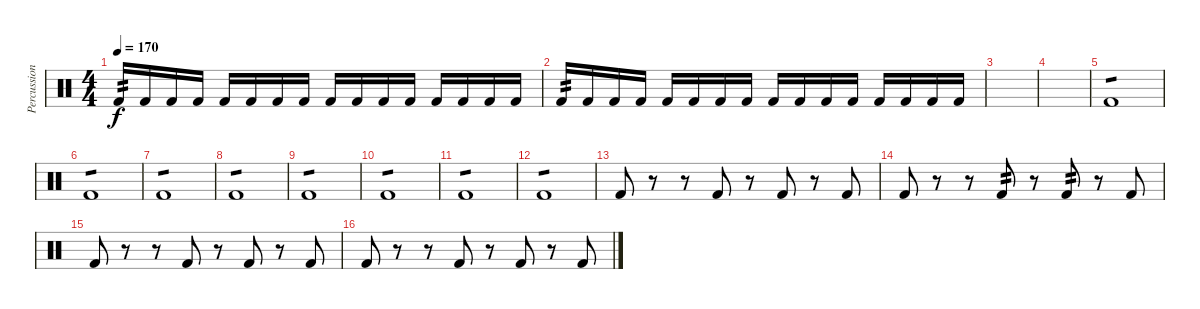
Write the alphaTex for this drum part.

\track ("Percussion" "Percussion") {solo instrument percussion}
\staff {score}
\articulation defaults
\ts (4 4)
\tempo 170
\clef neutral
\ks c "Kick (hit) 2".16{tp 2 dy f} "Kick (hit) 2".16 "Kick (hit) 2".16 "Kick (hit) 2".16 "Kick (hit) 2".16 "Kick (hit) 2".16 "Kick (hit) 2".16 "Kick (hit) 2".16 "Kick (hit) 2".16 "Kick (hit) 2".16 "Kick (hit) 2".16 "Kick (hit) 2".16 "Kick (hit) 2".16 "Kick (hit) 2".16 "Kick (hit) 2".16 "Kick (hit) 2".16
|
"Kick (hit) 2".16{tp 2} "Kick (hit) 2".16 "Kick (hit) 2".16 "Kick (hit) 2".16 "Kick (hit) 2".16 "Kick (hit) 2".16 "Kick (hit) 2".16 "Kick (hit) 2".16 "Kick (hit) 2".16 "Kick (hit) 2".16 "Kick (hit) 2".16 "Kick (hit) 2".16 "Kick (hit) 2".16 "Kick (hit) 2".16 "Kick (hit) 2".16 "Kick (hit) 2".16 |
|
|
"Kick (hit) 2".1{tp 1} |
"Kick (hit) 2".1{tp 1} |
"Kick (hit) 2".1{tp 1} |
"Kick (hit) 2".1{tp 1} |
"Kick (hit) 2".1{tp 1} |
"Kick (hit) 2".1{tp 1} |
"Kick (hit) 2".1{tp 1} |
"Kick (hit) 2".1{tp 1} |
"Kick (hit) 2".8 r.8 r.8 "Kick (hit) 2".8 r.8 "Kick (hit) 2".8 r.8 "Kick (hit) 2".8 |
"Kick (hit) 2".8 r.8 r.8 "Kick (hit) 2".8{tp 2} r.8 "Kick (hit) 2".8{tp 2} r.8 "Kick (hit) 2".8 |
"Kick (hit) 2".8 r.8 r.8 "Kick (hit) 2".8 r.8 "Kick (hit) 2".8 r.8 "Kick (hit) 2".8 |
"Kick (hit) 2".8 r.8 r.8 "Kick (hit) 2".8 r.8 "Kick (hit) 2".8 r.8 "Kick (hit) 2".8
